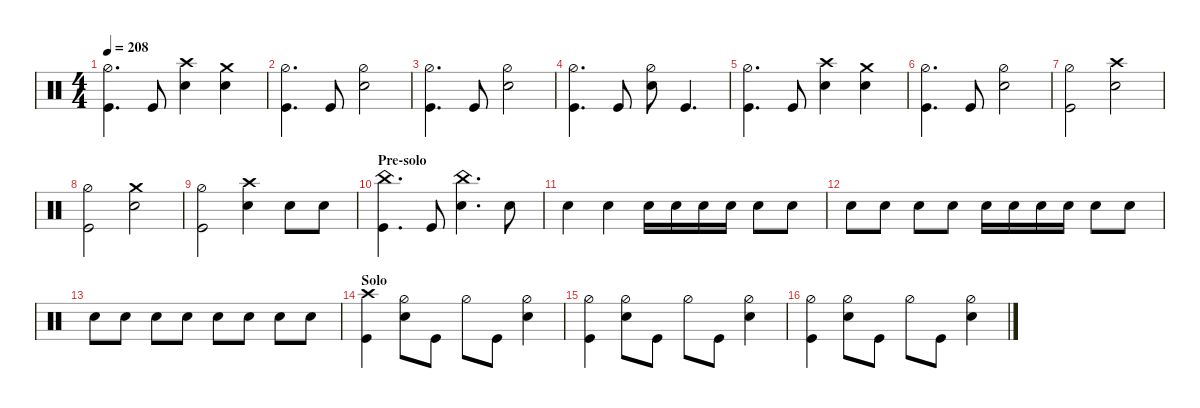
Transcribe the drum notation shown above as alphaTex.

\defaultSystemsLayout 4
\hideDynamics
\bracketExtendMode nobrackets
\singleTrackTrackNamePolicy hidden
\multiTrackTrackNamePolicy hidden
\otherSystemsTrackNameOrientation horizontal
\track ("Drums" "drm.") {multiBarRest instrument percussion}
\staff {score}
\articulation defaults
\ts (4 4)
\tempo 208
\clef neutral
\ks c
("Kick (hit)" "Hi-Hat (half)").4{d dy f beam Down} "Kick (hit)".8{beam Up} ("Snare (hit) 2" "Crash high (hit)").4{beam Down} ("Snare (hit) 2" "Crash medium (hit)").4{beam Down} |
("Kick (hit)" "Hi-Hat (half)").4{d beam Down} "Kick (hit)".8{beam Up} ("Snare (hit) 2" "Hi-Hat (half)").2{beam Down} |
("Kick (hit)" "Hi-Hat (half)").4{d beam Down} "Kick (hit)".8{beam Up} ("Snare (hit) 2" "Hi-Hat (half)").2{beam Down} |
("Kick (hit)" "Hi-Hat (half)").4{d beam Down} "Kick (hit)".8{beam Up} ("Snare (hit) 2" "Hi-Hat (half)").8{beam Down} "Kick (hit)".4{d beam Up} |
("Kick (hit)" "Hi-Hat (half)").4{d beam Down} "Kick (hit)".8{beam Up} ("Snare (hit) 2" "Crash high (hit)").4{beam Down} ("Snare (hit) 2" "Crash medium (hit)").4{beam Down} |
("Kick (hit)" "Hi-Hat (half)").4{d beam Down} "Kick (hit)".8{beam Up} ("Snare (hit) 2" "Hi-Hat (half)").2{beam Down} |
("Kick (hit)" "Hi-Hat (half)").2{beam Down} ("Snare (hit) 2" "Crash high (hit)").2{beam Down} |
("Kick (hit)" "Hi-Hat (half)").2{beam Down} ("Snare (hit) 2" "Crash medium (hit)").2{beam Down} |
("Kick (hit)" "Hi-Hat (half)").2{beam Down} ("Snare (hit) 2" "Crash high (hit)").4{beam Down} "Snare (hit) 2".8{beam Down} "Snare (hit) 2".8{beam Down} |
\section ("" "Pre-solo")
("China (hit)" "Kick (hit)").4{d beam Down} "Kick (hit)".8{beam Up} ("Snare (hit) 2" "China (hit)").4{d beam Down} "Snare (hit) 2".8{beam Down} |
"Snare (hit) 2".4{beam Down} "Snare (hit) 2".4{beam Down} "Snare (hit) 2".16{beam Down} "Snare (hit) 2".16{beam Down} "Snare (hit) 2".16{beam Down} "Snare (hit) 2".16{beam Down} "Snare (hit) 2".8{beam Down} "Snare (hit) 2".8{beam Down} |
"Snare (hit) 2".8{beam Down} "Snare (hit) 2".8{beam Down} "Snare (hit) 2".8{beam Down} "Snare (hit) 2".8{beam Down} "Snare (hit) 2".16{beam Down} "Snare (hit) 2".16{beam Down} "Snare (hit) 2".16{beam Down} "Snare (hit) 2".16{beam Down} "Snare (hit) 2".8{beam Down} "Snare (hit) 2".8{beam Down} |
"Snare (hit) 2".8{beam Down} "Snare (hit) 2".8{beam Down} "Snare (hit) 2".8{beam Down} "Snare (hit) 2".8{beam Down} "Snare (hit) 2".8{beam Down} "Snare (hit) 2".8{beam Down} "Snare (hit) 2".8{beam Down} "Snare (hit) 2".8{beam Down} |
\section ("" "Solo")
("Crash high (hit)" "Kick (hit)").4{beam Down} ("Snare (hit) 2" "Hi-Hat (half)").8{beam Down} "Kick (hit)".8{beam Down} "Hi-Hat (half)".8{beam Down} "Kick (hit)".8{beam Down} ("Snare (hit) 2" "Hi-Hat (half)").4{beam Down} |
("Kick (hit)" "Hi-Hat (half)").4{beam Down} ("Snare (hit) 2" "Hi-Hat (half)").8{beam Down} "Kick (hit)".8{beam Down} "Hi-Hat (half)".8{beam Down} "Kick (hit)".8{beam Down} ("Snare (hit) 2" "Hi-Hat (half)").4{beam Down} |
("Kick (hit)" "Hi-Hat (half)").4{beam Down} ("Snare (hit) 2" "Hi-Hat (half)").8{beam Down} "Kick (hit)".8{beam Down} "Hi-Hat (half)".8{beam Down} "Kick (hit)".8{beam Down} ("Snare (hit) 2" "Hi-Hat (half)").4{beam Down}
